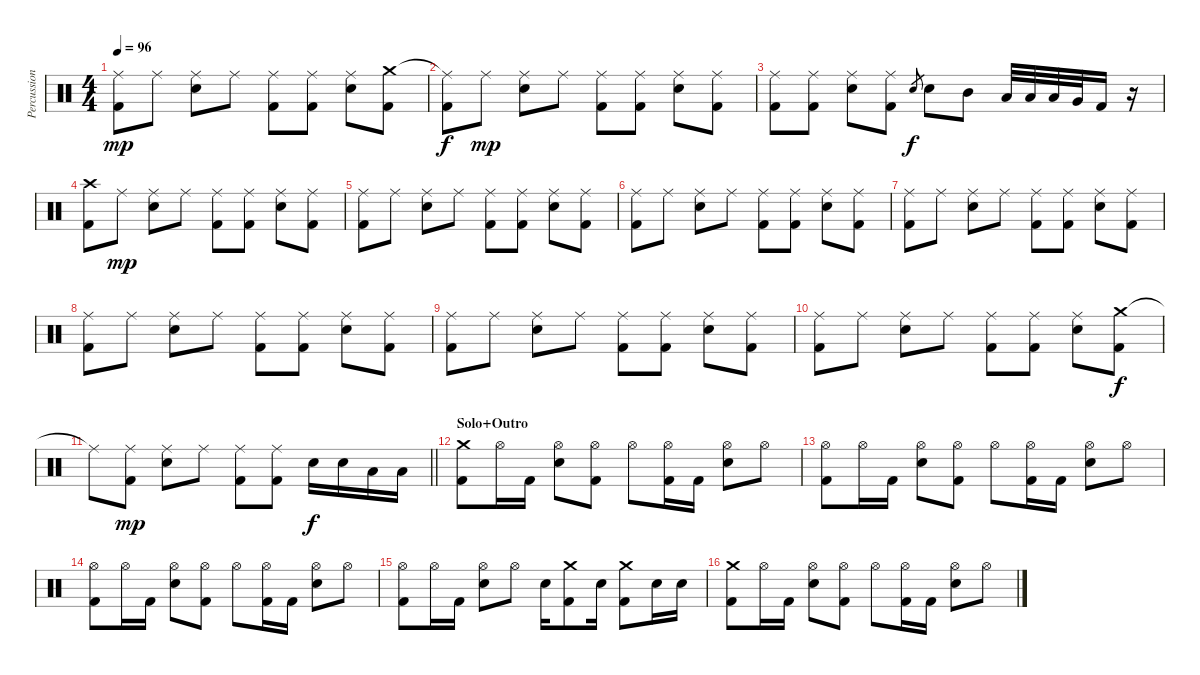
\track ("Percussion" "Percussion") {instrument percussion}
\staff {score}
\articulation defaults
\ts (4 4)
\tempo 96
\clef neutral
\ks c
("Ride (middle)" "Kick (hit) 2").8{dy mp} "Ride (middle)".8 ("Ride (middle)" "Electric Snare (hit)").8 "Ride (middle)".8 ("Ride (middle)" "Kick (hit) 2").8 ("Ride (middle)" "Kick (hit) 2").8 ("Ride (middle)" "Electric Snare (hit)").8 ("Crash medium (hit)" "Kick (hit) 2").8 |
("Ride (middle)"{t} "Kick (hit) 2").8{dy f} "Ride (middle)".8{dy mp} ("Ride (middle)" "Electric Snare (hit)").8 "Ride (middle)".8 ("Ride (middle)" "Kick (hit) 2").8 ("Ride (middle)" "Kick (hit) 2").8 ("Ride (middle)" "Electric Snare (hit)").8 ("Ride (middle)" "Kick (hit) 2").8 |
("Ride (middle)" "Kick (hit) 2").8 ("Ride (middle)" "Kick (hit) 2").8 ("Ride (middle)" "Electric Snare (hit)").8 ("Ride (middle)" "Kick (hit) 2").8 "Electric Snare (hit)".8{gr dy f} "Electric Snare (hit)".8 "Mid Tom (hit)".8 "Low Tom (hit)".32 "Low Tom (hit)".32 "Low Tom (hit)".32 "Very Low Tom (hit)".32 "Kick (hit) 2".16 r.16 |
("Crash high (hit)" "Kick (hit) 2").8 "Ride (middle)".8{dy mp} ("Ride (middle)" "Electric Snare (hit)").8 "Ride (middle)".8 ("Ride (middle)" "Kick (hit) 2").8 ("Ride (middle)" "Kick (hit) 2").8 ("Ride (middle)" "Electric Snare (hit)").8 ("Ride (middle)" "Kick (hit) 2").8 |
("Ride (middle)" "Kick (hit) 2").8 "Ride (middle)".8 ("Ride (middle)" "Electric Snare (hit)").8 "Ride (middle)".8 ("Ride (middle)" "Kick (hit) 2").8 ("Ride (middle)" "Kick (hit) 2").8 ("Ride (middle)" "Electric Snare (hit)").8 ("Ride (middle)" "Kick (hit) 2").8 |
("Ride (middle)" "Kick (hit) 2").8 "Ride (middle)".8 ("Ride (middle)" "Electric Snare (hit)").8 "Ride (middle)".8 ("Ride (middle)" "Kick (hit) 2").8 ("Ride (middle)" "Kick (hit) 2").8 ("Ride (middle)" "Electric Snare (hit)").8 ("Ride (middle)" "Kick (hit) 2").8 |
("Ride (middle)" "Kick (hit) 2").8 "Ride (middle)".8 ("Ride (middle)" "Electric Snare (hit)").8 "Ride (middle)".8 ("Ride (middle)" "Kick (hit) 2").8 ("Ride (middle)" "Kick (hit) 2").8 ("Ride (middle)" "Electric Snare (hit)").8 ("Ride (middle)" "Kick (hit) 2").8 |
("Ride (middle)" "Kick (hit) 2").8 "Ride (middle)".8 ("Ride (middle)" "Electric Snare (hit)").8 "Ride (middle)".8 ("Ride (middle)" "Kick (hit) 2").8 ("Ride (middle)" "Kick (hit) 2").8 ("Ride (middle)" "Electric Snare (hit)").8 ("Ride (middle)" "Kick (hit) 2").8 |
("Ride (middle)" "Kick (hit) 2").8 "Ride (middle)".8 ("Ride (middle)" "Electric Snare (hit)").8 "Ride (middle)".8 ("Ride (middle)" "Kick (hit) 2").8 ("Ride (middle)" "Kick (hit) 2").8 ("Ride (middle)" "Electric Snare (hit)").8 ("Ride (middle)" "Kick (hit) 2").8 |
("Ride (middle)" "Kick (hit) 2").8 "Ride (middle)".8 ("Ride (middle)" "Electric Snare (hit)").8 "Ride (middle)".8 ("Ride (middle)" "Kick (hit) 2").8 ("Ride (middle)" "Kick (hit) 2").8 ("Ride (middle)" "Electric Snare (hit)").8 ("Crash medium (hit)" "Kick (hit) 2").8{dy f} |
\barLineRight lightlight "Ride (middle)"{t}.8
("Ride (middle)" "Kick (hit) 2").8{dy mp} ("Ride (middle)" "Electric Snare (hit)").8 "Ride (middle)".8 ("Ride (middle)" "Kick (hit) 2").8 ("Ride (middle)" "Kick (hit) 2").8 "Electric Snare (hit)".16{dy f} "Electric Snare (hit)".16 "Low Tom (hit)".16 "Low Tom (hit)".16 |
\section ("" "Solo+Outro")
("Crash medium (hit)" "Kick (hit) 2").8 "Hi-Hat (open)".16 "Kick (hit) 2".16 ("Hi-Hat (open)" "Electric Snare (hit)").8 ("Hi-Hat (open)" "Kick (hit) 2").8 "Hi-Hat (open)".8 ("Hi-Hat (open)" "Kick (hit) 2").16 "Kick (hit) 2".16 ("Hi-Hat (open)" "Electric Snare (hit)").8 "Hi-Hat (open)".8 |
("Hi-Hat (open)" "Kick (hit) 2").8 "Hi-Hat (open)".16 "Kick (hit) 2".16 ("Hi-Hat (open)" "Electric Snare (hit)").8 ("Hi-Hat (open)" "Kick (hit) 2").8 "Hi-Hat (open)".8 ("Hi-Hat (open)" "Kick (hit) 2").16 "Kick (hit) 2".16 ("Hi-Hat (open)" "Electric Snare (hit)").8 "Hi-Hat (open)".8 |
("Hi-Hat (open)" "Kick (hit) 2").8 "Hi-Hat (open)".16 "Kick (hit) 2".16 ("Hi-Hat (open)" "Electric Snare (hit)").8 ("Hi-Hat (open)" "Kick (hit) 2").8 "Hi-Hat (open)".8 ("Hi-Hat (open)" "Kick (hit) 2").16 "Kick (hit) 2".16 ("Hi-Hat (open)" "Electric Snare (hit)").8 "Hi-Hat (open)".8 |
("Hi-Hat (open)" "Kick (hit) 2").8 "Hi-Hat (open)".16 "Kick (hit) 2".16 ("Hi-Hat (open)" "Electric Snare (hit)").8 "Hi-Hat (open)".8 "Electric Snare (hit)".16 ("Crash medium (hit)" "Kick (hit) 2").8 "Electric Snare (hit)".16 ("Crash medium (hit)" "Kick (hit) 2").8 "Electric Snare (hit)".16 "Electric Snare (hit)".16 |
("Crash medium (hit)" "Kick (hit) 2").8 "Hi-Hat (open)".16 "Kick (hit) 2".16 ("Hi-Hat (open)" "Electric Snare (hit)").8 ("Hi-Hat (open)" "Kick (hit) 2").8 "Hi-Hat (open)".8 ("Hi-Hat (open)" "Kick (hit) 2").16 "Kick (hit) 2".16 ("Hi-Hat (open)" "Electric Snare (hit)").8 "Hi-Hat (open)".8
